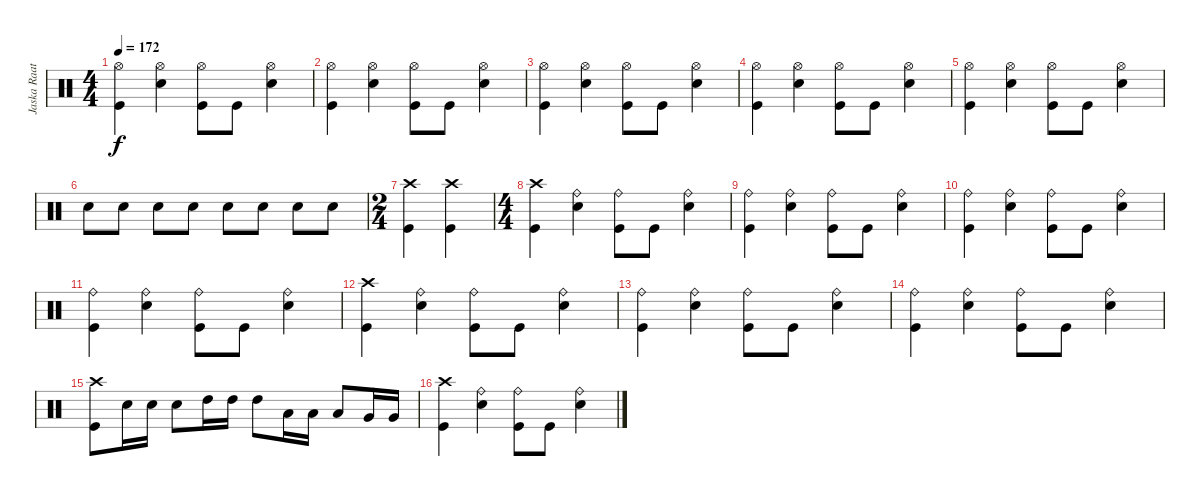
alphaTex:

\track ("Jaska Raatikainen" "Jaska Raat") {instrument percussion}
\staff {score}
\articulation defaults
\ts (4 4)
\tempo 172
\clef neutral
\ks c
("Hi-Hat (open)" "Kick (hit)").4{dy f} ("Hi-Hat (open)" "Snare (hit) 2").4 ("Hi-Hat (open)" "Kick (hit)").8 "Kick (hit)".8 ("Hi-Hat (open)" "Snare (hit) 2").4 |
("Hi-Hat (open)" "Kick (hit)").4 ("Hi-Hat (open)" "Snare (hit) 2").4 ("Hi-Hat (open)" "Kick (hit)").8 "Kick (hit)".8 ("Hi-Hat (open)" "Snare (hit) 2").4 |
("Hi-Hat (open)" "Kick (hit)").4 ("Hi-Hat (open)" "Snare (hit) 2").4 ("Hi-Hat (open)" "Kick (hit)").8 "Kick (hit)".8 ("Hi-Hat (open)" "Snare (hit) 2").4 |
("Hi-Hat (open)" "Kick (hit)").4 ("Hi-Hat (open)" "Snare (hit) 2").4 ("Hi-Hat (open)" "Kick (hit)").8 "Kick (hit)".8 ("Hi-Hat (open)" "Snare (hit) 2").4 |
("Hi-Hat (open)" "Kick (hit)").4 ("Hi-Hat (open)" "Snare (hit) 2").4 ("Hi-Hat (open)" "Kick (hit)").8 "Kick (hit)".8 ("Hi-Hat (open)" "Snare (hit) 2").4 |
"Snare (hit) 2".8 "Snare (hit) 2".8 "Snare (hit) 2".8 "Snare (hit) 2".8 "Snare (hit) 2".8 "Snare (hit) 2".8 "Snare (hit) 2".8 "Snare (hit) 2".8 |
\ts (2 4)
("Crash high (hit)" "Kick (hit)").4 ("Crash high (hit)" "Kick (hit)").4 |
\ts (4 4)
("Crash high (hit)" "Kick (hit)").4 ("Ride (bell)" "Snare (hit) 2").4 ("Ride (bell)" "Kick (hit)").8 "Kick (hit)".8 ("Ride (bell)" "Snare (hit) 2").4 |
("Ride (bell)" "Kick (hit)").4 ("Ride (bell)" "Snare (hit) 2").4 ("Ride (bell)" "Kick (hit)").8 "Kick (hit)".8 ("Ride (bell)" "Snare (hit) 2").4 |
("Ride (bell)" "Kick (hit)").4 ("Ride (bell)" "Snare (hit) 2").4 ("Ride (bell)" "Kick (hit)").8 "Kick (hit)".8 ("Ride (bell)" "Snare (hit) 2").4 |
("Ride (bell)" "Kick (hit)").4 ("Ride (bell)" "Snare (hit) 2").4 ("Ride (bell)" "Kick (hit)").8 "Kick (hit)".8 ("Ride (bell)" "Snare (hit) 2").4 |
("Crash high (hit)" "Kick (hit)").4 ("Ride (bell)" "Snare (hit) 2").4 ("Ride (bell)" "Kick (hit)").8 "Kick (hit)".8 ("Ride (bell)" "Snare (hit) 2").4 |
("Ride (bell)" "Kick (hit)").4 ("Ride (bell)" "Snare (hit) 2").4 ("Ride (bell)" "Kick (hit)").8 "Kick (hit)".8 ("Ride (bell)" "Snare (hit) 2").4 |
("Ride (bell)" "Kick (hit)").4 ("Ride (bell)" "Snare (hit) 2").4 ("Ride (bell)" "Kick (hit)").8 "Kick (hit)".8 ("Ride (bell)" "Snare (hit) 2").4 |
("Crash high (hit)" "Kick (hit)").8 "Snare (hit) 2".16 "Snare (hit) 2".16 "Snare (hit) 2".8 "High Tom (hit)".16 "High Tom (hit)".16 "High Tom (hit)".8 "Low Tom (hit)".16 "Low Tom (hit)".16 "Low Tom (hit)".8 "Very Low Tom (hit)".16 "Very Low Tom (hit)".16 |
("Crash high (hit)" "Kick (hit)").4 ("Ride (bell)" "Snare (hit) 2").4 ("Ride (bell)" "Kick (hit)").8 "Kick (hit)".8 ("Ride (bell)" "Snare (hit) 2").4
